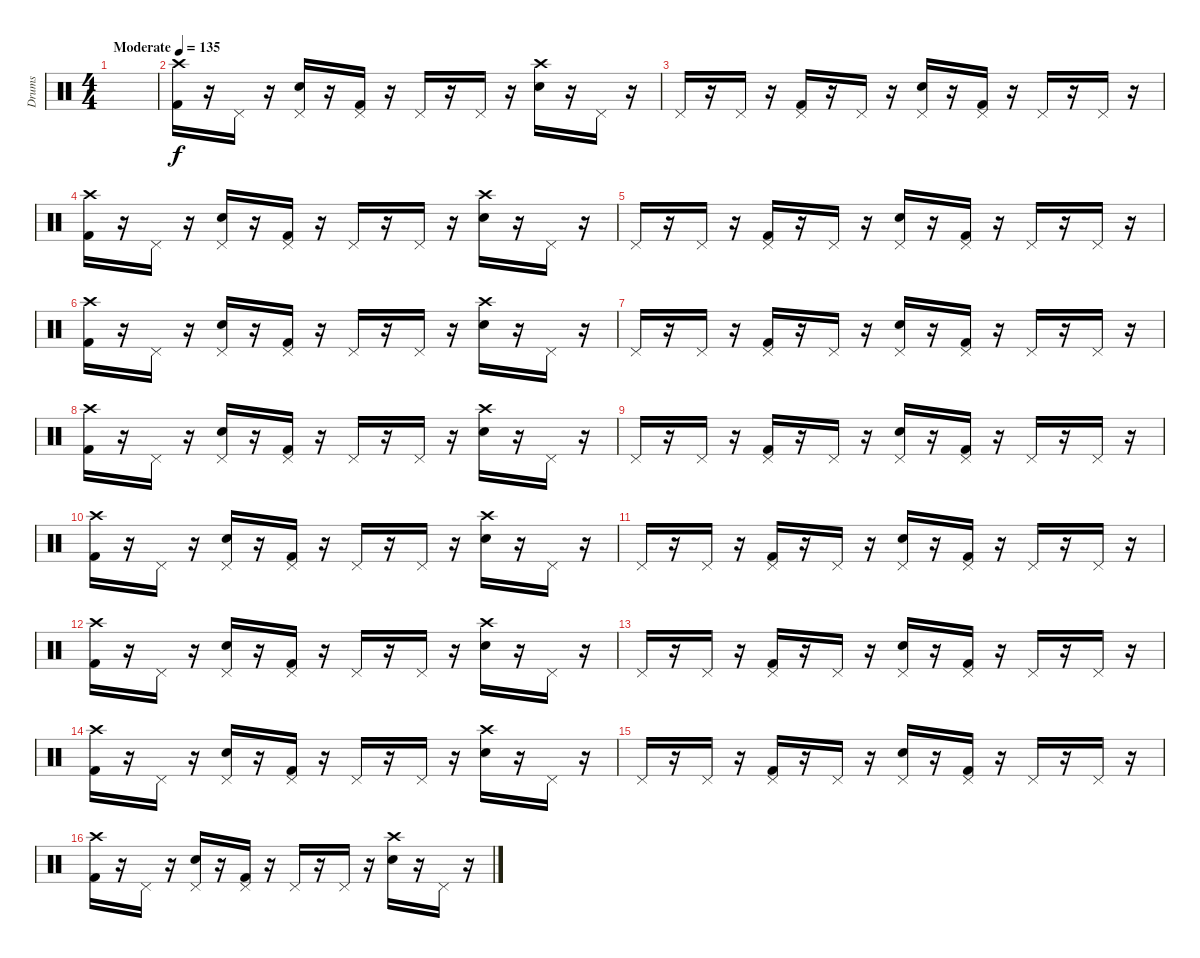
\track ("Drums" "Drums") {instrument percussion}
\staff {score}
\articulation defaults
\ts (4 4)
\tempo (135 "Moderate")
\clef neutral
\ks c
|
("Crash high (hit)" "Kick (hit) 2").16 r.16 "Pedal Hi-Hat (hit)".16 r.16 ("Pedal Hi-Hat (hit)" "Snare (hit) 2").16 r.16 ("Pedal Hi-Hat (hit)" "Kick (hit) 2").16 r.16 "Pedal Hi-Hat (hit)".16 r.16 "Pedal Hi-Hat (hit)".16 r.16 ("Crash high (hit)" "Snare (hit) 2").16 r.16 "Pedal Hi-Hat (hit)".16 r.16 |
"Pedal Hi-Hat (hit)".16 r.16 "Pedal Hi-Hat (hit)".16 r.16 ("Pedal Hi-Hat (hit)" "Kick (hit) 2").16 r.16 "Pedal Hi-Hat (hit)".16 r.16 ("Pedal Hi-Hat (hit)" "Snare (hit) 2").16 r.16 ("Pedal Hi-Hat (hit)" "Kick (hit) 2").16 r.16 "Pedal Hi-Hat (hit)".16 r.16 "Pedal Hi-Hat (hit)".16 r.16 |
("Crash high (hit)" "Kick (hit) 2").16 r.16 "Pedal Hi-Hat (hit)".16 r.16 ("Pedal Hi-Hat (hit)" "Snare (hit) 2").16 r.16 ("Pedal Hi-Hat (hit)" "Kick (hit) 2").16 r.16 "Pedal Hi-Hat (hit)".16 r.16 "Pedal Hi-Hat (hit)".16 r.16 ("Crash high (hit)" "Snare (hit) 2").16 r.16 "Pedal Hi-Hat (hit)".16 r.16 |
"Pedal Hi-Hat (hit)".16 r.16 "Pedal Hi-Hat (hit)".16 r.16 ("Pedal Hi-Hat (hit)" "Kick (hit) 2").16 r.16 "Pedal Hi-Hat (hit)".16 r.16 ("Pedal Hi-Hat (hit)" "Snare (hit) 2").16 r.16 ("Pedal Hi-Hat (hit)" "Kick (hit) 2").16 r.16 "Pedal Hi-Hat (hit)".16 r.16 "Pedal Hi-Hat (hit)".16 r.16 |
("Crash high (hit)" "Kick (hit) 2").16 r.16 "Pedal Hi-Hat (hit)".16 r.16 ("Pedal Hi-Hat (hit)" "Snare (hit) 2").16 r.16 ("Pedal Hi-Hat (hit)" "Kick (hit) 2").16 r.16 "Pedal Hi-Hat (hit)".16 r.16 "Pedal Hi-Hat (hit)".16 r.16 ("Crash high (hit)" "Snare (hit) 2").16 r.16 "Pedal Hi-Hat (hit)".16 r.16 |
"Pedal Hi-Hat (hit)".16 r.16 "Pedal Hi-Hat (hit)".16 r.16 ("Pedal Hi-Hat (hit)" "Kick (hit) 2").16 r.16 "Pedal Hi-Hat (hit)".16 r.16 ("Pedal Hi-Hat (hit)" "Snare (hit) 2").16 r.16 ("Pedal Hi-Hat (hit)" "Kick (hit) 2").16 r.16 "Pedal Hi-Hat (hit)".16 r.16 "Pedal Hi-Hat (hit)".16 r.16 |
("Crash high (hit)" "Kick (hit) 2").16 r.16 "Pedal Hi-Hat (hit)".16 r.16 ("Pedal Hi-Hat (hit)" "Snare (hit) 2").16 r.16 ("Pedal Hi-Hat (hit)" "Kick (hit) 2").16 r.16 "Pedal Hi-Hat (hit)".16 r.16 "Pedal Hi-Hat (hit)".16 r.16 ("Crash high (hit)" "Snare (hit) 2").16 r.16 "Pedal Hi-Hat (hit)".16 r.16 |
"Pedal Hi-Hat (hit)".16 r.16 "Pedal Hi-Hat (hit)".16 r.16 ("Pedal Hi-Hat (hit)" "Kick (hit) 2").16 r.16 "Pedal Hi-Hat (hit)".16 r.16 ("Pedal Hi-Hat (hit)" "Snare (hit) 2").16 r.16 ("Pedal Hi-Hat (hit)" "Kick (hit) 2").16 r.16 "Pedal Hi-Hat (hit)".16 r.16 "Pedal Hi-Hat (hit)".16 r.16 |
("Crash high (hit)" "Kick (hit) 2").16 r.16 "Pedal Hi-Hat (hit)".16 r.16 ("Pedal Hi-Hat (hit)" "Snare (hit) 2").16 r.16 ("Pedal Hi-Hat (hit)" "Kick (hit) 2").16 r.16 "Pedal Hi-Hat (hit)".16 r.16 "Pedal Hi-Hat (hit)".16 r.16 ("Crash high (hit)" "Snare (hit) 2").16 r.16 "Pedal Hi-Hat (hit)".16 r.16 |
"Pedal Hi-Hat (hit)".16 r.16 "Pedal Hi-Hat (hit)".16 r.16 ("Pedal Hi-Hat (hit)" "Kick (hit) 2").16 r.16 "Pedal Hi-Hat (hit)".16 r.16 ("Pedal Hi-Hat (hit)" "Snare (hit) 2").16 r.16 ("Pedal Hi-Hat (hit)" "Kick (hit) 2").16 r.16 "Pedal Hi-Hat (hit)".16 r.16 "Pedal Hi-Hat (hit)".16 r.16 |
("Crash high (hit)" "Kick (hit) 2").16 r.16 "Pedal Hi-Hat (hit)".16 r.16 ("Pedal Hi-Hat (hit)" "Snare (hit) 2").16 r.16 ("Pedal Hi-Hat (hit)" "Kick (hit) 2").16 r.16 "Pedal Hi-Hat (hit)".16 r.16 "Pedal Hi-Hat (hit)".16 r.16 ("Crash high (hit)" "Snare (hit) 2").16 r.16 "Pedal Hi-Hat (hit)".16 r.16 |
"Pedal Hi-Hat (hit)".16 r.16 "Pedal Hi-Hat (hit)".16 r.16 ("Pedal Hi-Hat (hit)" "Kick (hit) 2").16 r.16 "Pedal Hi-Hat (hit)".16 r.16 ("Pedal Hi-Hat (hit)" "Snare (hit) 2").16 r.16 ("Pedal Hi-Hat (hit)" "Kick (hit) 2").16 r.16 "Pedal Hi-Hat (hit)".16 r.16 "Pedal Hi-Hat (hit)".16 r.16 |
("Crash high (hit)" "Kick (hit) 2").16 r.16 "Pedal Hi-Hat (hit)".16 r.16 ("Pedal Hi-Hat (hit)" "Snare (hit) 2").16 r.16 ("Pedal Hi-Hat (hit)" "Kick (hit) 2").16 r.16 "Pedal Hi-Hat (hit)".16 r.16 "Pedal Hi-Hat (hit)".16 r.16 ("Crash high (hit)" "Snare (hit) 2").16 r.16 "Pedal Hi-Hat (hit)".16 r.16 |
"Pedal Hi-Hat (hit)".16 r.16 "Pedal Hi-Hat (hit)".16 r.16 ("Pedal Hi-Hat (hit)" "Kick (hit) 2").16 r.16 "Pedal Hi-Hat (hit)".16 r.16 ("Pedal Hi-Hat (hit)" "Snare (hit) 2").16 r.16 ("Pedal Hi-Hat (hit)" "Kick (hit) 2").16 r.16 "Pedal Hi-Hat (hit)".16 r.16 "Pedal Hi-Hat (hit)".16 r.16 |
("Crash high (hit)" "Kick (hit) 2").16 r.16 "Pedal Hi-Hat (hit)".16 r.16 ("Pedal Hi-Hat (hit)" "Snare (hit) 2").16 r.16 ("Pedal Hi-Hat (hit)" "Kick (hit) 2").16 r.16 "Pedal Hi-Hat (hit)".16 r.16 "Pedal Hi-Hat (hit)".16 r.16 ("Crash high (hit)" "Snare (hit) 2").16 r.16 "Pedal Hi-Hat (hit)".16 r.16
